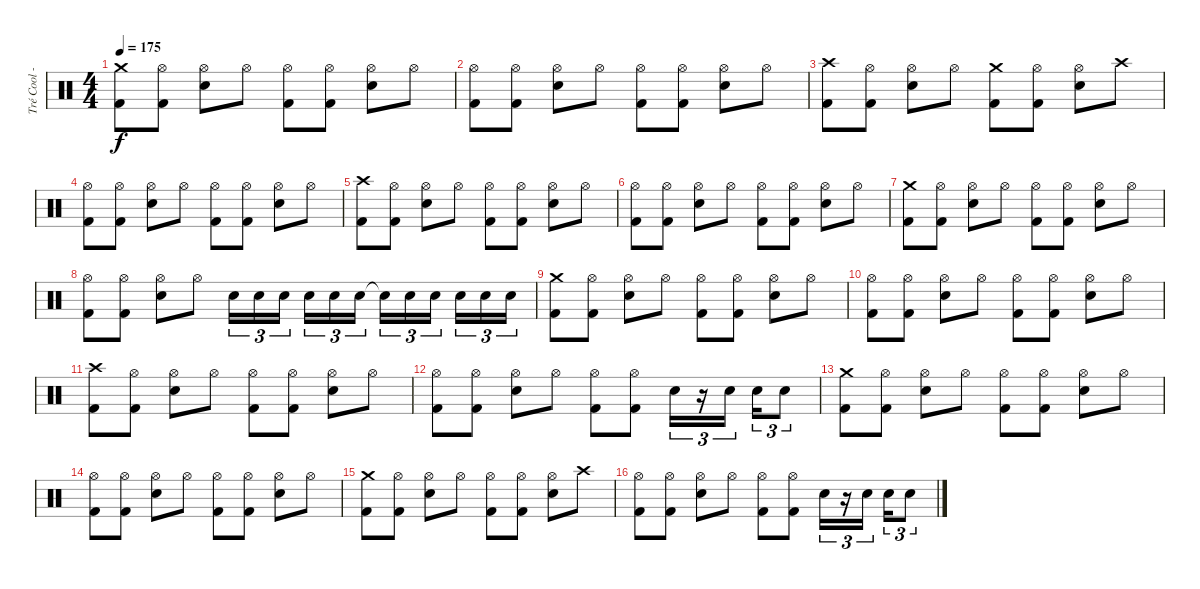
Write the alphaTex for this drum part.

\track ("Tré Cool - Drums" "Tré Cool -") {instrument percussion}
\staff {score}
\articulation defaults
\ts (4 4)
\tempo 175
\clef neutral
\ks c
("Crash medium (hit)" "Kick (hit) 2").8{dy f} ("Hi-Hat (open)" "Kick (hit) 2").8 ("Hi-Hat (open)" "Electric Snare (hit)").8 "Hi-Hat (open)".8 ("Hi-Hat (open)" "Kick (hit) 2").8 ("Hi-Hat (open)" "Kick (hit) 2").8 ("Hi-Hat (open)" "Electric Snare (hit)").8 "Hi-Hat (open)".8 |
("Hi-Hat (open)" "Kick (hit) 2").8 ("Hi-Hat (open)" "Kick (hit) 2").8 ("Hi-Hat (open)" "Electric Snare (hit)").8 "Hi-Hat (open)".8 ("Hi-Hat (open)" "Kick (hit) 2").8 ("Hi-Hat (open)" "Kick (hit) 2").8 ("Hi-Hat (open)" "Electric Snare (hit)").8 "Hi-Hat (open)".8 |
("Crash high (hit)" "Kick (hit) 2").8 ("Hi-Hat (open)" "Kick (hit) 2").8 ("Hi-Hat (open)" "Electric Snare (hit)").8 "Hi-Hat (open)".8 ("Crash medium (hit)" "Kick (hit) 2").8 ("Hi-Hat (open)" "Kick (hit) 2").8 ("Hi-Hat (open)" "Electric Snare (hit)").8 "Crash high (hit)".8 |
("Hi-Hat (open)" "Kick (hit) 2").8 ("Hi-Hat (open)" "Kick (hit) 2").8 ("Hi-Hat (open)" "Electric Snare (hit)").8 "Hi-Hat (open)".8 ("Hi-Hat (open)" "Kick (hit) 2").8 ("Hi-Hat (open)" "Kick (hit) 2").8 ("Hi-Hat (open)" "Electric Snare (hit)").8 "Hi-Hat (open)".8 |
("Crash high (hit)" "Kick (hit) 2").8 ("Hi-Hat (open)" "Kick (hit) 2").8 ("Hi-Hat (open)" "Electric Snare (hit)").8 "Hi-Hat (open)".8 ("Hi-Hat (open)" "Kick (hit) 2").8 ("Hi-Hat (open)" "Kick (hit) 2").8 ("Hi-Hat (open)" "Electric Snare (hit)").8 "Hi-Hat (open)".8 |
("Hi-Hat (open)" "Kick (hit) 2").8 ("Hi-Hat (open)" "Kick (hit) 2").8 ("Hi-Hat (open)" "Electric Snare (hit)").8 "Hi-Hat (open)".8 ("Hi-Hat (open)" "Kick (hit) 2").8 ("Hi-Hat (open)" "Kick (hit) 2").8 ("Hi-Hat (open)" "Electric Snare (hit)").8 "Hi-Hat (open)".8 |
("Crash medium (hit)" "Kick (hit) 2").8 ("Hi-Hat (open)" "Kick (hit) 2").8 ("Hi-Hat (open)" "Electric Snare (hit)").8 "Hi-Hat (open)".8 ("Hi-Hat (open)" "Kick (hit) 2").8 ("Hi-Hat (open)" "Kick (hit) 2").8 ("Hi-Hat (open)" "Electric Snare (hit)").8 "Hi-Hat (open)".8 |
("Hi-Hat (open)" "Kick (hit) 2").8 ("Hi-Hat (open)" "Kick (hit) 2").8 ("Hi-Hat (open)" "Electric Snare (hit)").8 "Hi-Hat (open)".8 "Electric Snare (hit)".16{tu (3 2)} "Electric Snare (hit)".16{tu (3 2)} "Electric Snare (hit)".16{tu (3 2) beam splitsecondary} "Electric Snare (hit)".16{tu (3 2)} "Electric Snare (hit)".16{tu (3 2)} "Electric Snare (hit)".16{tu (3 2)} "Snare (hit)"{t}.16{tu (3 2)} "Electric Snare (hit)".16{tu (3 2)} "Electric Snare (hit)".16{tu (3 2) beam splitsecondary} "Electric Snare (hit)".16{tu (3 2)} "Electric Snare (hit)".16{tu (3 2)} "Electric Snare (hit)".16{tu (3 2)} |
("Crash medium (hit)" "Kick (hit) 2").8 ("Hi-Hat (open)" "Kick (hit) 2").8 ("Hi-Hat (open)" "Electric Snare (hit)").8 "Hi-Hat (open)".8 ("Hi-Hat (open)" "Kick (hit) 2").8 ("Hi-Hat (open)" "Kick (hit) 2").8 ("Hi-Hat (open)" "Electric Snare (hit)").8 "Hi-Hat (open)".8 |
("Hi-Hat (open)" "Kick (hit) 2").8 ("Hi-Hat (open)" "Kick (hit) 2").8 ("Hi-Hat (open)" "Electric Snare (hit)").8 "Hi-Hat (open)".8 ("Hi-Hat (open)" "Kick (hit) 2").8 ("Hi-Hat (open)" "Kick (hit) 2").8 ("Hi-Hat (open)" "Electric Snare (hit)").8 "Hi-Hat (open)".8 |
("Crash high (hit)" "Kick (hit) 2").8 ("Hi-Hat (open)" "Kick (hit) 2").8 ("Hi-Hat (open)" "Electric Snare (hit)").8 "Hi-Hat (open)".8 ("Hi-Hat (open)" "Kick (hit) 2").8 ("Hi-Hat (open)" "Kick (hit) 2").8 ("Hi-Hat (open)" "Electric Snare (hit)").8 "Hi-Hat (open)".8 |
("Hi-Hat (open)" "Kick (hit) 2").8 ("Hi-Hat (open)" "Kick (hit) 2").8 ("Hi-Hat (open)" "Electric Snare (hit)").8 "Hi-Hat (open)".8 ("Hi-Hat (open)" "Kick (hit) 2").8 ("Hi-Hat (open)" "Kick (hit) 2").8 "Electric Snare (hit)".16{tu (3 2)} r.16{tu (3 2)} "Electric Snare (hit)".16{tu (3 2) beam splitsecondary} "Electric Snare (hit)".16{tu (3 2)} "Electric Snare (hit)".8{tu (3 2)} |
("Crash medium (hit)" "Kick (hit) 2").8 ("Hi-Hat (open)" "Kick (hit) 2").8 ("Hi-Hat (open)" "Electric Snare (hit)").8 "Hi-Hat (open)".8 ("Hi-Hat (open)" "Kick (hit) 2").8 ("Hi-Hat (open)" "Kick (hit) 2").8 ("Hi-Hat (open)" "Electric Snare (hit)").8 "Hi-Hat (open)".8 |
("Hi-Hat (open)" "Kick (hit) 2").8 ("Hi-Hat (open)" "Kick (hit) 2").8 ("Hi-Hat (open)" "Electric Snare (hit)").8 "Hi-Hat (open)".8 ("Hi-Hat (open)" "Kick (hit) 2").8 ("Hi-Hat (open)" "Kick (hit) 2").8 ("Hi-Hat (open)" "Electric Snare (hit)").8 "Hi-Hat (open)".8 |
("Crash medium (hit)" "Kick (hit) 2").8 ("Hi-Hat (open)" "Kick (hit) 2").8 ("Hi-Hat (open)" "Electric Snare (hit)").8 "Hi-Hat (open)".8 ("Hi-Hat (open)" "Kick (hit) 2").8 ("Hi-Hat (open)" "Kick (hit) 2").8 ("Hi-Hat (open)" "Electric Snare (hit)").8 "Crash high (hit)".8 |
("Hi-Hat (open)" "Kick (hit) 2").8 ("Hi-Hat (open)" "Kick (hit) 2").8 ("Hi-Hat (open)" "Electric Snare (hit)").8 "Hi-Hat (open)".8 ("Hi-Hat (open)" "Kick (hit) 2").8 ("Hi-Hat (open)" "Kick (hit) 2").8 "Electric Snare (hit)".16{tu (3 2)} r.16{tu (3 2)} "Electric Snare (hit)".16{tu (3 2) beam splitsecondary} "Electric Snare (hit)".16{tu (3 2)} "Electric Snare (hit)".8{tu (3 2)}
